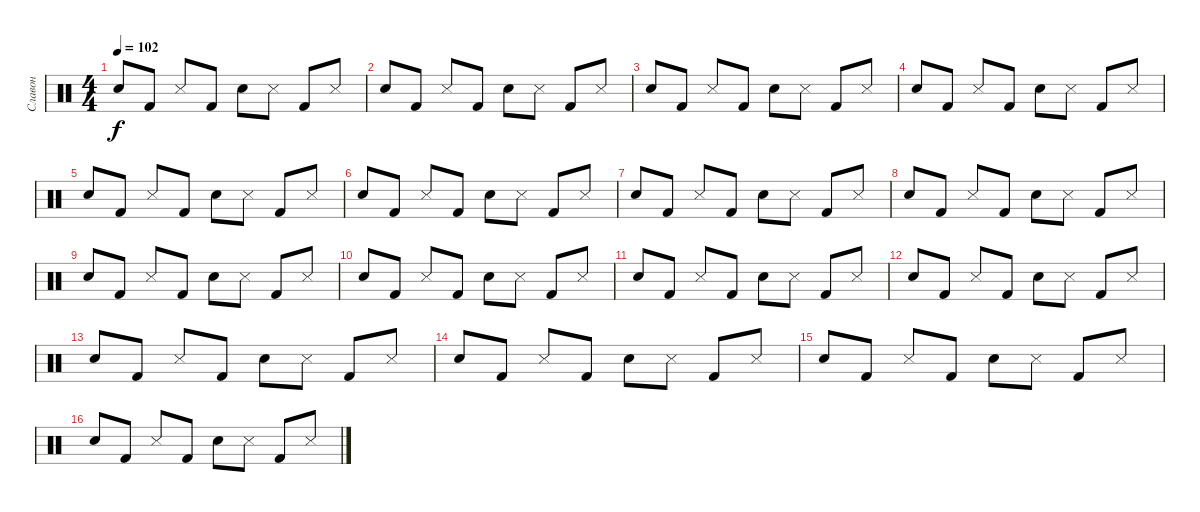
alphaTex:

\track ("Славон" "Славон") {instrument percussion}
\staff {score}
\articulation defaults
\ts (4 4)
\tempo 102
\clef neutral
\ks c "Snare (hit) 2".8{dy f} "Kick (hit) 2".8 "Snare (side stick) 3".8 "Kick (hit) 2".8 "Snare (hit) 2".8 "Snare (side stick) 3".8 "Kick (hit) 2".8 "Snare (side stick) 3".8
|
"Snare (hit) 2".8 "Kick (hit) 2".8 "Snare (side stick) 3".8 "Kick (hit) 2".8 "Snare (hit) 2".8 "Snare (side stick) 3".8 "Kick (hit) 2".8 "Snare (side stick) 3".8 |
"Snare (hit) 2".8 "Kick (hit) 2".8 "Snare (side stick) 3".8 "Kick (hit) 2".8 "Snare (hit) 2".8 "Snare (side stick) 3".8 "Kick (hit) 2".8 "Snare (side stick) 3".8 |
"Snare (hit) 2".8 "Kick (hit) 2".8 "Snare (side stick) 3".8 "Kick (hit) 2".8 "Snare (hit) 2".8 "Snare (side stick) 3".8 "Kick (hit) 2".8 "Snare (side stick) 3".8 |
"Snare (hit) 2".8 "Kick (hit) 2".8 "Snare (side stick) 3".8 "Kick (hit) 2".8 "Snare (hit) 2".8 "Snare (side stick) 3".8 "Kick (hit) 2".8 "Snare (side stick) 3".8 |
"Snare (hit) 2".8 "Kick (hit) 2".8 "Snare (side stick) 3".8 "Kick (hit) 2".8 "Snare (hit) 2".8 "Snare (side stick) 3".8 "Kick (hit) 2".8 "Snare (side stick) 3".8 |
"Snare (hit) 2".8 "Kick (hit) 2".8 "Snare (side stick) 3".8 "Kick (hit) 2".8 "Snare (hit) 2".8 "Snare (side stick) 3".8 "Kick (hit) 2".8 "Snare (side stick) 3".8 |
"Snare (hit) 2".8 "Kick (hit) 2".8 "Snare (side stick) 3".8 "Kick (hit) 2".8 "Snare (hit) 2".8 "Snare (side stick) 3".8 "Kick (hit) 2".8 "Snare (side stick) 3".8 |
"Snare (hit) 2".8 "Kick (hit) 2".8 "Snare (side stick) 3".8 "Kick (hit) 2".8 "Snare (hit) 2".8 "Snare (side stick) 3".8 "Kick (hit) 2".8 "Snare (side stick) 3".8 |
"Snare (hit) 2".8 "Kick (hit) 2".8 "Snare (side stick) 3".8 "Kick (hit) 2".8 "Snare (hit) 2".8 "Snare (side stick) 3".8 "Kick (hit) 2".8 "Snare (side stick) 3".8 |
"Snare (hit) 2".8 "Kick (hit) 2".8 "Snare (side stick) 3".8 "Kick (hit) 2".8 "Snare (hit) 2".8 "Snare (side stick) 3".8 "Kick (hit) 2".8 "Snare (side stick) 3".8 |
"Snare (hit) 2".8 "Kick (hit) 2".8 "Snare (side stick) 3".8 "Kick (hit) 2".8 "Snare (hit) 2".8 "Snare (side stick) 3".8 "Kick (hit) 2".8 "Snare (side stick) 3".8 |
"Snare (hit) 2".8 "Kick (hit) 2".8 "Snare (side stick) 3".8 "Kick (hit) 2".8 "Snare (hit) 2".8 "Snare (side stick) 3".8 "Kick (hit) 2".8 "Snare (side stick) 3".8 |
"Snare (hit) 2".8 "Kick (hit) 2".8 "Snare (side stick) 3".8 "Kick (hit) 2".8 "Snare (hit) 2".8 "Snare (side stick) 3".8 "Kick (hit) 2".8 "Snare (side stick) 3".8 |
"Snare (hit) 2".8 "Kick (hit) 2".8 "Snare (side stick) 3".8 "Kick (hit) 2".8 "Snare (hit) 2".8 "Snare (side stick) 3".8 "Kick (hit) 2".8 "Snare (side stick) 3".8 |
"Snare (hit) 2".8 "Kick (hit) 2".8 "Snare (side stick) 3".8 "Kick (hit) 2".8 "Snare (hit) 2".8 "Snare (side stick) 3".8 "Kick (hit) 2".8 "Snare (side stick) 3".8
